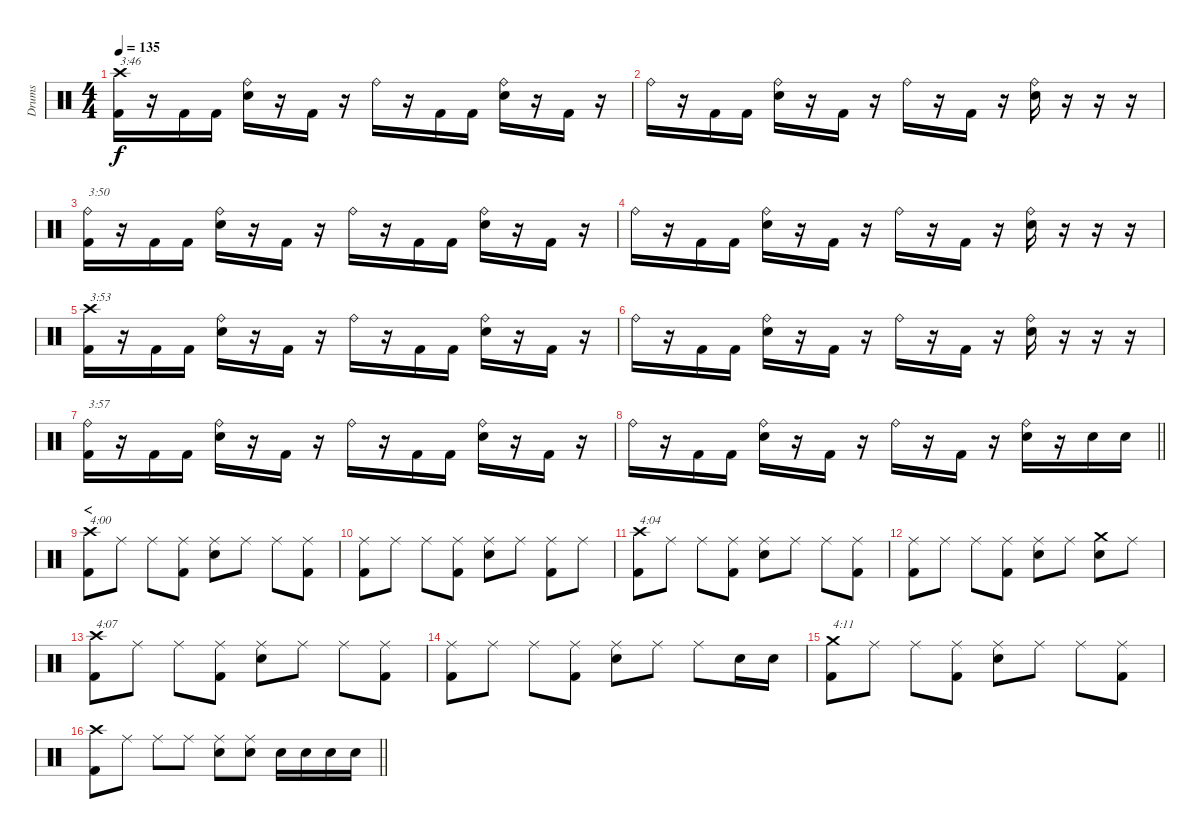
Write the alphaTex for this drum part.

\track ("Drums" "Drums") {instrument percussion}
\staff {score}
\articulation defaults
\ts (4 4)
\tempo 135
\clef neutral
\ks c
("Crash high (hit)" "Kick (hit) 2").16{txt "3:46" dy f} r.16 "Kick (hit) 2".16 "Kick (hit) 2".16 ("Ride (bell)" "Electric Snare (hit)").16 r.16 "Kick (hit) 2".16 r.16 "Ride (bell)".16 r.16 "Kick (hit) 2".16 "Kick (hit) 2".16 ("Ride (bell)" "Electric Snare (hit)").16 r.16 "Kick (hit) 2".16 r.16 |
"Ride (bell)".16 r.16 "Kick (hit) 2".16 "Kick (hit) 2".16 ("Ride (bell)" "Electric Snare (hit)").16 r.16 "Kick (hit) 2".16 r.16 "Ride (bell)".16 r.16 "Kick (hit) 2".16 r.16 ("Ride (bell)" "Electric Snare (hit)").16 r.16 r.16 r.16 |
("Ride (bell)" "Kick (hit) 2").16{txt "3:50"} r.16 "Kick (hit) 2".16 "Kick (hit) 2".16 ("Ride (bell)" "Electric Snare (hit)").16 r.16 "Kick (hit) 2".16 r.16 "Ride (bell)".16 r.16 "Kick (hit) 2".16 "Kick (hit) 2".16 ("Ride (bell)" "Electric Snare (hit)").16 r.16 "Kick (hit) 2".16 r.16 |
"Ride (bell)".16 r.16 "Kick (hit) 2".16 "Kick (hit) 2".16 ("Ride (bell)" "Electric Snare (hit)").16 r.16 "Kick (hit) 2".16 r.16 "Ride (bell)".16 r.16 "Kick (hit) 2".16 r.16 ("Ride (bell)" "Electric Snare (hit)").16 r.16 r.16 r.16 |
("Crash high (hit)" "Kick (hit) 2").16{txt "3:53"} r.16 "Kick (hit) 2".16 "Kick (hit) 2".16 ("Ride (bell)" "Electric Snare (hit)").16 r.16 "Kick (hit) 2".16 r.16 "Ride (bell)".16 r.16 "Kick (hit) 2".16 "Kick (hit) 2".16 ("Ride (bell)" "Electric Snare (hit)").16 r.16 "Kick (hit) 2".16 r.16 |
"Ride (bell)".16 r.16 "Kick (hit) 2".16 "Kick (hit) 2".16 ("Ride (bell)" "Electric Snare (hit)").16 r.16 "Kick (hit) 2".16 r.16 "Ride (bell)".16 r.16 "Kick (hit) 2".16 r.16 ("Ride (bell)" "Electric Snare (hit)").16 r.16 r.16 r.16 |
("Ride (bell)" "Kick (hit) 2").16{txt "3:57"} r.16 "Kick (hit) 2".16 "Kick (hit) 2".16 ("Ride (bell)" "Electric Snare (hit)").16 r.16 "Kick (hit) 2".16 r.16 "Ride (bell)".16 r.16 "Kick (hit) 2".16 "Kick (hit) 2".16 ("Ride (bell)" "Electric Snare (hit)").16 r.16 "Kick (hit) 2".16 r.16 |
\barLineRight lightlight "Ride (bell)".16
r.16 "Kick (hit) 2".16 "Kick (hit) 2".16 ("Ride (bell)" "Electric Snare (hit)").16 r.16 "Kick (hit) 2".16 r.16 "Ride (bell)".16 r.16 "Kick (hit) 2".16 r.16 ("Ride (bell)" "Electric Snare (hit)").16 r.16 "Electric Snare (hit)".16 "Electric Snare (hit)".16 |
\section ("" "<")
("Crash high (hit)" "Kick (hit) 2").8{txt "4:00"} "Ride (middle)".8 "Ride (middle)".8 ("Ride (middle)" "Kick (hit) 2").8 ("Ride (middle)" "Electric Snare (hit)").8 "Ride (middle)".8 "Ride (middle)".8 ("Ride (middle)" "Kick (hit) 2").8 |
("Ride (middle)" "Kick (hit) 2").8 "Ride (middle)".8 "Ride (middle)".8 ("Ride (middle)" "Kick (hit) 2").8 ("Ride (middle)" "Electric Snare (hit)").8 "Ride (middle)".8 ("Ride (middle)" "Kick (hit) 2").8 "Ride (middle)".8 |
("Crash high (hit)" "Kick (hit) 2").8{txt "4:04"} "Ride (middle)".8 "Ride (middle)".8 ("Ride (middle)" "Kick (hit) 2").8 ("Ride (middle)" "Electric Snare (hit)").8 "Ride (middle)".8 "Ride (middle)".8 ("Ride (middle)" "Kick (hit) 2").8 |
("Ride (middle)" "Kick (hit) 2").8 "Ride (middle)".8 "Ride (middle)".8 ("Ride (middle)" "Kick (hit) 2").8 ("Ride (middle)" "Electric Snare (hit)").8 "Ride (middle)".8 ("Crash medium (hit)" "Electric Snare (hit)").8 "Ride (middle)".8 |
("Crash high (hit)" "Kick (hit) 2").8{txt "4:07"} "Ride (middle)".8 "Ride (middle)".8 ("Ride (middle)" "Kick (hit) 2").8 ("Ride (middle)" "Electric Snare (hit)").8 "Ride (middle)".8 "Ride (middle)".8 ("Ride (middle)" "Kick (hit) 2").8 |
("Ride (middle)" "Kick (hit) 2").8 "Ride (middle)".8 "Ride (middle)".8 ("Ride (middle)" "Kick (hit) 2").8 ("Ride (middle)" "Electric Snare (hit)").8 "Ride (middle)".8 "Ride (middle)".8 "Electric Snare (hit)".16 "Electric Snare (hit)".16 |
("Crash medium (hit)" "Kick (hit) 2").8{txt "4:11"} "Ride (middle)".8 "Ride (middle)".8 ("Ride (middle)" "Kick (hit) 2").8 ("Ride (middle)" "Electric Snare (hit)").8 "Ride (middle)".8 "Ride (middle)".8 ("Ride (middle)" "Kick (hit) 2").8 |
\barLineRight lightlight
("Crash high (hit)" "Kick (hit) 2").8 "Ride (middle)".8 "Ride (middle)".8 "Ride (middle)".8 ("Ride (middle)" "Electric Snare (hit)").8 ("Ride (middle)" "Electric Snare (hit)").8 "Electric Snare (hit)".16 "Electric Snare (hit)".16 "Electric Snare (hit)".16 "Electric Snare (hit)".16
